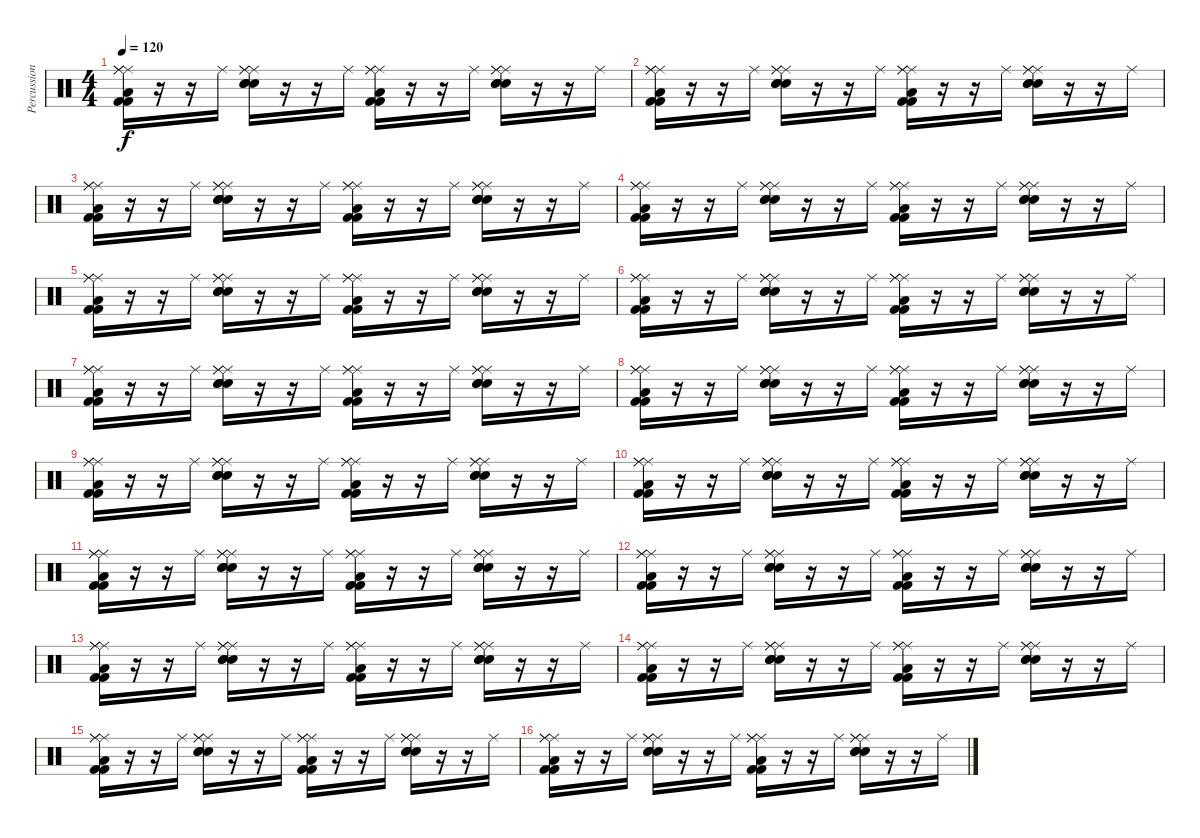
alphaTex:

\track ("Percussion" "Percussion") {instrument percussion}
\staff {score}
\articulation defaults
\ts (4 4)
\tempo 120
\clef neutral
\ks c
("Ride (middle)" "Ride (middle)" "Ride (middle)" "Low Floor Tom (hit)" "Kick (hit) 2" "Kick (hit) 2").16{dy f} r.16 r.16 "Ride (middle)".16 ("Ride (middle)" "Ride (middle)" "Ride (middle)" "Snare (hit) 2" "Snare (hit) 2" "Snare (hit) 2").16 r.16 r.16 "Ride (middle)".16 ("Ride (middle)" "Ride (middle)" "Ride (middle)" "Low Floor Tom (hit)" "Kick (hit) 2" "Kick (hit) 2").16 r.16 r.16 "Ride (middle)".16 ("Ride (middle)" "Ride (middle)" "Ride (middle)" "Snare (hit) 2" "Snare (hit) 2" "Snare (hit) 2").16 r.16 r.16 "Ride (middle)".16 |
("Ride (middle)" "Ride (middle)" "Ride (middle)" "Low Floor Tom (hit)" "Kick (hit) 2" "Kick (hit) 2").16 r.16 r.16 "Ride (middle)".16 ("Ride (middle)" "Ride (middle)" "Ride (middle)" "Snare (hit) 2" "Snare (hit) 2" "Snare (hit) 2").16 r.16 r.16 "Ride (middle)".16 ("Ride (middle)" "Ride (middle)" "Ride (middle)" "Low Floor Tom (hit)" "Kick (hit) 2" "Kick (hit) 2").16 r.16 r.16 "Ride (middle)".16 ("Ride (middle)" "Ride (middle)" "Ride (middle)" "Snare (hit) 2" "Snare (hit) 2" "Snare (hit) 2").16 r.16 r.16 "Ride (middle)".16 |
("Ride (middle)" "Ride (middle)" "Ride (middle)" "Low Floor Tom (hit)" "Kick (hit) 2" "Kick (hit) 2").16 r.16 r.16 "Ride (middle)".16 ("Ride (middle)" "Ride (middle)" "Ride (middle)" "Snare (hit) 2" "Snare (hit) 2" "Snare (hit) 2").16 r.16 r.16 "Ride (middle)".16 ("Ride (middle)" "Ride (middle)" "Ride (middle)" "Low Floor Tom (hit)" "Kick (hit) 2" "Kick (hit) 2").16 r.16 r.16 "Ride (middle)".16 ("Ride (middle)" "Ride (middle)" "Ride (middle)" "Snare (hit) 2" "Snare (hit) 2" "Snare (hit) 2").16 r.16 r.16 "Ride (middle)".16 |
("Ride (middle)" "Ride (middle)" "Ride (middle)" "Low Floor Tom (hit)" "Kick (hit) 2" "Kick (hit) 2").16 r.16 r.16 "Ride (middle)".16 ("Ride (middle)" "Ride (middle)" "Ride (middle)" "Snare (hit) 2" "Snare (hit) 2" "Snare (hit) 2").16 r.16 r.16 "Ride (middle)".16 ("Ride (middle)" "Ride (middle)" "Ride (middle)" "Low Floor Tom (hit)" "Kick (hit) 2" "Kick (hit) 2").16 r.16 r.16 "Ride (middle)".16 ("Ride (middle)" "Ride (middle)" "Ride (middle)" "Snare (hit) 2" "Snare (hit) 2" "Snare (hit) 2").16 r.16 r.16 "Ride (middle)".16 |
("Ride (middle)" "Ride (middle)" "Ride (middle)" "Low Floor Tom (hit)" "Kick (hit) 2" "Kick (hit) 2").16 r.16 r.16 "Ride (middle)".16 ("Ride (middle)" "Ride (middle)" "Ride (middle)" "Snare (hit) 2" "Snare (hit) 2" "Snare (hit) 2").16 r.16 r.16 "Ride (middle)".16 ("Ride (middle)" "Ride (middle)" "Ride (middle)" "Low Floor Tom (hit)" "Kick (hit) 2" "Kick (hit) 2").16 r.16 r.16 "Ride (middle)".16 ("Ride (middle)" "Ride (middle)" "Ride (middle)" "Snare (hit) 2" "Snare (hit) 2" "Snare (hit) 2").16 r.16 r.16 "Ride (middle)".16 |
("Ride (middle)" "Ride (middle)" "Ride (middle)" "Low Floor Tom (hit)" "Kick (hit) 2" "Kick (hit) 2").16 r.16 r.16 "Ride (middle)".16 ("Ride (middle)" "Ride (middle)" "Ride (middle)" "Snare (hit) 2" "Snare (hit) 2" "Snare (hit) 2").16 r.16 r.16 "Ride (middle)".16 ("Ride (middle)" "Ride (middle)" "Ride (middle)" "Low Floor Tom (hit)" "Kick (hit) 2" "Kick (hit) 2").16 r.16 r.16 "Ride (middle)".16 ("Ride (middle)" "Ride (middle)" "Ride (middle)" "Snare (hit) 2" "Snare (hit) 2" "Snare (hit) 2").16 r.16 r.16 "Ride (middle)".16 |
("Ride (middle)" "Ride (middle)" "Ride (middle)" "Low Floor Tom (hit)" "Kick (hit) 2" "Kick (hit) 2").16 r.16 r.16 "Ride (middle)".16 ("Ride (middle)" "Ride (middle)" "Ride (middle)" "Snare (hit) 2" "Snare (hit) 2" "Snare (hit) 2").16 r.16 r.16 "Ride (middle)".16 ("Ride (middle)" "Ride (middle)" "Ride (middle)" "Low Floor Tom (hit)" "Kick (hit) 2" "Kick (hit) 2").16 r.16 r.16 "Ride (middle)".16 ("Ride (middle)" "Ride (middle)" "Ride (middle)" "Snare (hit) 2" "Snare (hit) 2" "Snare (hit) 2").16 r.16 r.16 "Ride (middle)".16 |
("Ride (middle)" "Ride (middle)" "Ride (middle)" "Low Floor Tom (hit)" "Kick (hit) 2" "Kick (hit) 2").16 r.16 r.16 "Ride (middle)".16 ("Ride (middle)" "Ride (middle)" "Ride (middle)" "Snare (hit) 2" "Snare (hit) 2" "Snare (hit) 2").16 r.16 r.16 "Ride (middle)".16 ("Ride (middle)" "Ride (middle)" "Ride (middle)" "Low Floor Tom (hit)" "Kick (hit) 2" "Kick (hit) 2").16 r.16 r.16 "Ride (middle)".16 ("Ride (middle)" "Ride (middle)" "Ride (middle)" "Snare (hit) 2" "Snare (hit) 2" "Snare (hit) 2").16 r.16 r.16 "Ride (middle)".16 |
("Ride (middle)" "Ride (middle)" "Ride (middle)" "Low Floor Tom (hit)" "Kick (hit) 2" "Kick (hit) 2").16 r.16 r.16 "Ride (middle)".16 ("Ride (middle)" "Ride (middle)" "Ride (middle)" "Snare (hit) 2" "Snare (hit) 2" "Snare (hit) 2").16 r.16 r.16 "Ride (middle)".16 ("Ride (middle)" "Ride (middle)" "Ride (middle)" "Low Floor Tom (hit)" "Kick (hit) 2" "Kick (hit) 2").16 r.16 r.16 "Ride (middle)".16 ("Ride (middle)" "Ride (middle)" "Ride (middle)" "Snare (hit) 2" "Snare (hit) 2" "Snare (hit) 2").16 r.16 r.16 "Ride (middle)".16 |
("Ride (middle)" "Ride (middle)" "Ride (middle)" "Low Floor Tom (hit)" "Kick (hit) 2" "Kick (hit) 2").16 r.16 r.16 "Ride (middle)".16 ("Ride (middle)" "Ride (middle)" "Ride (middle)" "Snare (hit) 2" "Snare (hit) 2" "Snare (hit) 2").16 r.16 r.16 "Ride (middle)".16 ("Ride (middle)" "Ride (middle)" "Ride (middle)" "Low Floor Tom (hit)" "Kick (hit) 2" "Kick (hit) 2").16 r.16 r.16 "Ride (middle)".16 ("Ride (middle)" "Ride (middle)" "Ride (middle)" "Snare (hit) 2" "Snare (hit) 2" "Snare (hit) 2").16 r.16 r.16 "Ride (middle)".16 |
("Ride (middle)" "Ride (middle)" "Ride (middle)" "Low Floor Tom (hit)" "Kick (hit) 2" "Kick (hit) 2").16 r.16 r.16 "Ride (middle)".16 ("Ride (middle)" "Ride (middle)" "Ride (middle)" "Snare (hit) 2" "Snare (hit) 2" "Snare (hit) 2").16 r.16 r.16 "Ride (middle)".16 ("Ride (middle)" "Ride (middle)" "Ride (middle)" "Low Floor Tom (hit)" "Kick (hit) 2" "Kick (hit) 2").16 r.16 r.16 "Ride (middle)".16 ("Ride (middle)" "Ride (middle)" "Ride (middle)" "Snare (hit) 2" "Snare (hit) 2" "Snare (hit) 2").16 r.16 r.16 "Ride (middle)".16 |
("Ride (middle)" "Ride (middle)" "Ride (middle)" "Low Floor Tom (hit)" "Kick (hit) 2" "Kick (hit) 2").16 r.16 r.16 "Ride (middle)".16 ("Ride (middle)" "Ride (middle)" "Ride (middle)" "Snare (hit) 2" "Snare (hit) 2" "Snare (hit) 2").16 r.16 r.16 "Ride (middle)".16 ("Ride (middle)" "Ride (middle)" "Ride (middle)" "Low Floor Tom (hit)" "Kick (hit) 2" "Kick (hit) 2").16 r.16 r.16 "Ride (middle)".16 ("Ride (middle)" "Ride (middle)" "Ride (middle)" "Snare (hit) 2" "Snare (hit) 2" "Snare (hit) 2").16 r.16 r.16 "Ride (middle)".16 |
("Ride (middle)" "Ride (middle)" "Ride (middle)" "Low Floor Tom (hit)" "Kick (hit) 2" "Kick (hit) 2").16 r.16 r.16 "Ride (middle)".16 ("Ride (middle)" "Ride (middle)" "Ride (middle)" "Snare (hit) 2" "Snare (hit) 2" "Snare (hit) 2").16 r.16 r.16 "Ride (middle)".16 ("Ride (middle)" "Ride (middle)" "Ride (middle)" "Low Floor Tom (hit)" "Kick (hit) 2" "Kick (hit) 2").16 r.16 r.16 "Ride (middle)".16 ("Ride (middle)" "Ride (middle)" "Ride (middle)" "Snare (hit) 2" "Snare (hit) 2" "Snare (hit) 2").16 r.16 r.16 "Ride (middle)".16 |
("Ride (middle)" "Ride (middle)" "Ride (middle)" "Low Floor Tom (hit)" "Kick (hit) 2" "Kick (hit) 2").16 r.16 r.16 "Ride (middle)".16 ("Ride (middle)" "Ride (middle)" "Ride (middle)" "Snare (hit) 2" "Snare (hit) 2" "Snare (hit) 2").16 r.16 r.16 "Ride (middle)".16 ("Ride (middle)" "Ride (middle)" "Ride (middle)" "Low Floor Tom (hit)" "Kick (hit) 2" "Kick (hit) 2").16 r.16 r.16 "Ride (middle)".16 ("Ride (middle)" "Ride (middle)" "Ride (middle)" "Snare (hit) 2" "Snare (hit) 2" "Snare (hit) 2").16 r.16 r.16 "Ride (middle)".16 |
("Ride (middle)" "Ride (middle)" "Ride (middle)" "Low Floor Tom (hit)" "Kick (hit) 2" "Kick (hit) 2").16 r.16 r.16 "Ride (middle)".16 ("Ride (middle)" "Ride (middle)" "Ride (middle)" "Snare (hit) 2" "Snare (hit) 2" "Snare (hit) 2").16 r.16 r.16 "Ride (middle)".16 ("Ride (middle)" "Ride (middle)" "Ride (middle)" "Low Floor Tom (hit)" "Kick (hit) 2" "Kick (hit) 2").16 r.16 r.16 "Ride (middle)".16 ("Ride (middle)" "Ride (middle)" "Ride (middle)" "Snare (hit) 2" "Snare (hit) 2" "Snare (hit) 2").16 r.16 r.16 "Ride (middle)".16 |
("Ride (middle)" "Ride (middle)" "Ride (middle)" "Low Floor Tom (hit)" "Kick (hit) 2" "Kick (hit) 2").16 r.16 r.16 "Ride (middle)".16 ("Ride (middle)" "Ride (middle)" "Ride (middle)" "Snare (hit) 2" "Snare (hit) 2" "Snare (hit) 2").16 r.16 r.16 "Ride (middle)".16 ("Ride (middle)" "Ride (middle)" "Ride (middle)" "Low Floor Tom (hit)" "Kick (hit) 2" "Kick (hit) 2").16 r.16 r.16 "Ride (middle)".16 ("Ride (middle)" "Ride (middle)" "Ride (middle)" "Snare (hit) 2" "Snare (hit) 2" "Snare (hit) 2").16 r.16 r.16 "Ride (middle)".16
